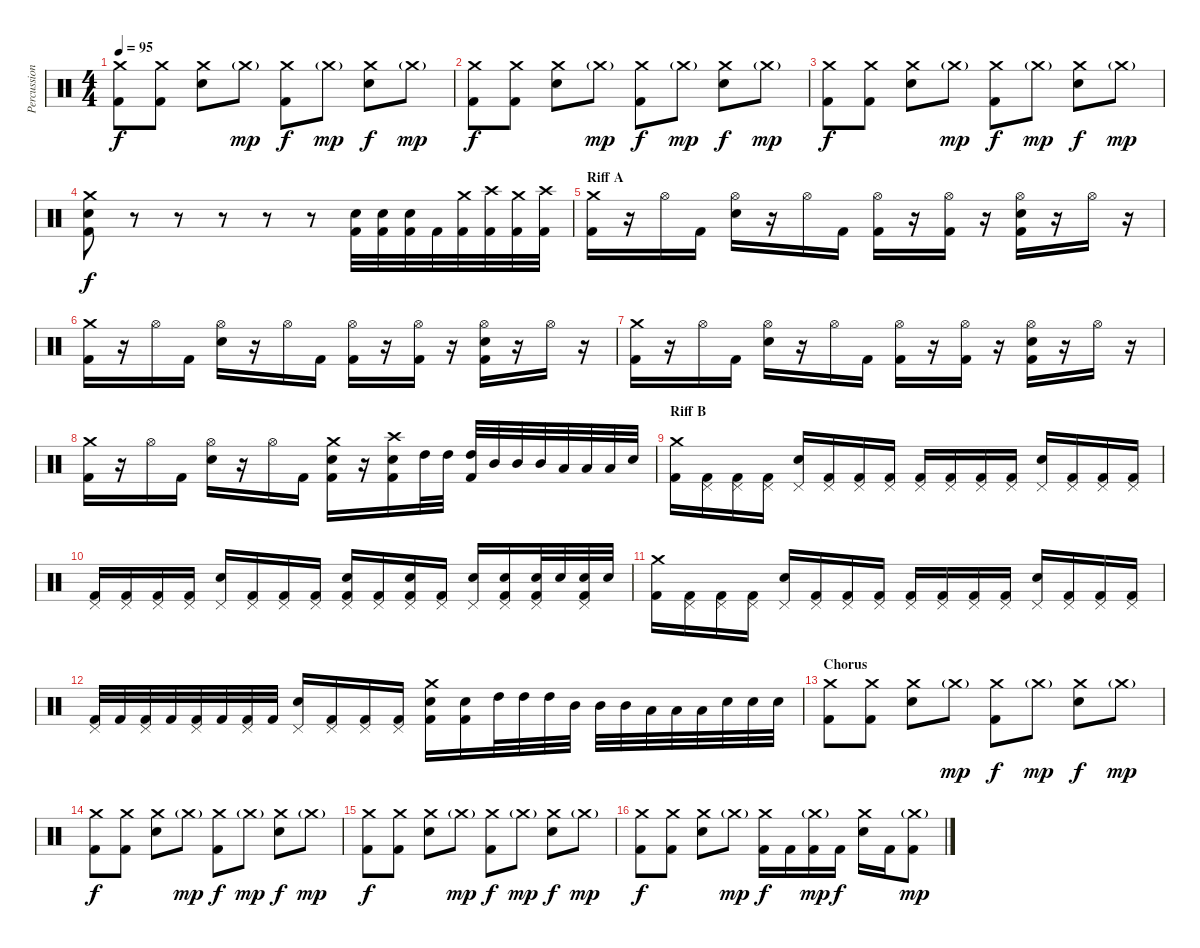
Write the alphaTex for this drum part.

\track ("Percussions" "Percussion") {instrument percussion}
\staff {score}
\articulation defaults
\ts (4 4)
\tempo 95
\clef neutral
\ks c
("Crash medium (hit)" "Kick (hit) 2").8{dy f} ("Crash medium (hit)" "Kick (hit) 2").8 ("Crash medium (hit)" "Electric Snare (hit)").8 "Crash medium (hit)"{g}.8{dy mp} ("Crash medium (hit)" "Kick (hit) 2").8{dy f} "Crash medium (hit)"{g}.8{dy mp} ("Crash medium (hit)" "Electric Snare (hit)").8{dy f} "Crash medium (hit)"{g}.8{dy mp} |
("Crash medium (hit)" "Kick (hit) 2").8{dy f} ("Crash medium (hit)" "Kick (hit) 2").8 ("Crash medium (hit)" "Electric Snare (hit)").8 "Crash medium (hit)"{g}.8{dy mp} ("Crash medium (hit)" "Kick (hit) 2").8{dy f} "Crash medium (hit)"{g}.8{dy mp} ("Crash medium (hit)" "Electric Snare (hit)").8{dy f} "Crash medium (hit)"{g}.8{dy mp} |
("Crash medium (hit)" "Kick (hit) 2").8{dy f} ("Crash medium (hit)" "Kick (hit) 2").8 ("Crash medium (hit)" "Electric Snare (hit)").8 "Crash medium (hit)"{g}.8{dy mp} ("Crash medium (hit)" "Kick (hit) 2").8{dy f} "Crash medium (hit)"{g}.8{dy mp} ("Crash medium (hit)" "Electric Snare (hit)").8{dy f} "Crash medium (hit)"{g}.8{dy mp} |
("Crash medium (hit)" "Electric Snare (hit)" "Kick (hit) 2").8{dy f} r.8 r.8 r.8 r.8 r.8 ("Electric Snare (hit)" "Kick (hit) 2").32 ("Electric Snare (hit)" "Kick (hit) 2").32 ("Electric Snare (hit)" "Kick (hit) 2").32 "Kick (hit) 2".32 ("Crash medium (hit)" "Kick (hit) 2").32 ("Crash high (hit)" "Kick (hit) 2").32 ("Crash medium (hit)" "Kick (hit) 2").32 ("Crash high (hit)" "Kick (hit) 2").32 |
\section ("" "Riff A")
("Crash medium (hit)" "Kick (hit) 2").16 r.16 "Hi-Hat (open)".16 "Kick (hit) 2".16 ("Hi-Hat (open)" "Electric Snare (hit)").16 r.16 "Hi-Hat (open)".16 "Kick (hit) 2".16 ("Hi-Hat (open)" "Kick (hit) 2").16 r.16 ("Hi-Hat (open)" "Kick (hit) 2").16 r.16 ("Hi-Hat (open)" "Electric Snare (hit)" "Kick (hit) 2").16 r.16 "Hi-Hat (open)".16 r.16 |
("Crash medium (hit)" "Kick (hit) 2").16 r.16 "Hi-Hat (open)".16 "Kick (hit) 2".16 ("Hi-Hat (open)" "Electric Snare (hit)").16 r.16 "Hi-Hat (open)".16 "Kick (hit) 2".16 ("Hi-Hat (open)" "Kick (hit) 2").16 r.16 ("Hi-Hat (open)" "Kick (hit) 2").16 r.16 ("Hi-Hat (open)" "Electric Snare (hit)" "Kick (hit) 2").16 r.16 "Hi-Hat (open)".16 r.16 |
("Crash medium (hit)" "Kick (hit) 2").16 r.16 "Hi-Hat (open)".16 "Kick (hit) 2".16 ("Hi-Hat (open)" "Electric Snare (hit)").16 r.16 "Hi-Hat (open)".16 "Kick (hit) 2".16 ("Hi-Hat (open)" "Kick (hit) 2").16 r.16 ("Hi-Hat (open)" "Kick (hit) 2").16 r.16 ("Hi-Hat (open)" "Electric Snare (hit)" "Kick (hit) 2").16 r.16 "Hi-Hat (open)".16 r.16 |
("Crash medium (hit)" "Kick (hit) 2").16 r.16 "Hi-Hat (open)".16 "Kick (hit) 2".16 ("Hi-Hat (open)" "Electric Snare (hit)").16 r.16 "Hi-Hat (open)".16 "Kick (hit) 2".16 ("Crash medium (hit)" "Electric Snare (hit)" "Kick (hit) 2").16 r.16 ("Crash high (hit)" "Electric Snare (hit)" "Kick (hit) 2").16 "High Tom (hit)".32 "High Tom (hit)".32 ("High Tom (hit)" "Kick (hit) 2").32 "Mid Tom (hit)".32 "Mid Tom (hit)".32 "Mid Tom (hit)".32 "Low Tom (hit)".32 "Low Tom (hit)".32 "Low Tom (hit)".32 "Electric Snare (hit)".32 |
\section ("" "Riff B")
("Crash medium (hit)" "Kick (hit) 2").16 ("Pedal Hi-Hat (hit)" "Kick (hit) 2").16 ("Pedal Hi-Hat (hit)" "Kick (hit) 2").16 ("Pedal Hi-Hat (hit)" "Kick (hit) 2").16 ("Pedal Hi-Hat (hit)" "Electric Snare (hit)").16 ("Pedal Hi-Hat (hit)" "Kick (hit) 2").16 ("Pedal Hi-Hat (hit)" "Kick (hit) 2").16 ("Pedal Hi-Hat (hit)" "Kick (hit) 2").16 ("Pedal Hi-Hat (hit)" "Kick (hit) 2").16 ("Pedal Hi-Hat (hit)" "Kick (hit) 2").16 ("Pedal Hi-Hat (hit)" "Kick (hit) 2").16 ("Pedal Hi-Hat (hit)" "Kick (hit) 2").16 ("Pedal Hi-Hat (hit)" "Electric Snare (hit)").16 ("Pedal Hi-Hat (hit)" "Kick (hit) 2").16 ("Pedal Hi-Hat (hit)" "Kick (hit) 2").16 ("Pedal Hi-Hat (hit)" "Kick (hit) 2").16 |
("Pedal Hi-Hat (hit)" "Kick (hit) 2").16 ("Pedal Hi-Hat (hit)" "Kick (hit) 2").16 ("Pedal Hi-Hat (hit)" "Kick (hit) 2").16 ("Pedal Hi-Hat (hit)" "Kick (hit) 2").16 ("Pedal Hi-Hat (hit)" "Electric Snare (hit)").16 ("Pedal Hi-Hat (hit)" "Kick (hit) 2").16 ("Pedal Hi-Hat (hit)" "Kick (hit) 2").16 ("Pedal Hi-Hat (hit)" "Kick (hit) 2").16 ("Pedal Hi-Hat (hit)" "Electric Snare (hit)" "Kick (hit) 2").16 ("Pedal Hi-Hat (hit)" "Kick (hit) 2").16 ("Pedal Hi-Hat (hit)" "Electric Snare (hit)" "Kick (hit) 2").16 ("Pedal Hi-Hat (hit)" "Kick (hit) 2").16 ("Pedal Hi-Hat (hit)" "Electric Snare (hit)").16 ("Pedal Hi-Hat (hit)" "Electric Snare (hit)" "Kick (hit) 2").16 ("Pedal Hi-Hat (hit)" "Electric Snare (hit)" "Kick (hit) 2").32 "Electric Snare (hit)".32 ("Pedal Hi-Hat (hit)" "Electric Snare (hit)" "Kick (hit) 2").32 "Electric Snare (hit)".32 |
("Crash medium (hit)" "Kick (hit) 2").16 ("Pedal Hi-Hat (hit)" "Kick (hit) 2").16 ("Pedal Hi-Hat (hit)" "Kick (hit) 2").16 ("Pedal Hi-Hat (hit)" "Kick (hit) 2").16 ("Pedal Hi-Hat (hit)" "Electric Snare (hit)").16 ("Pedal Hi-Hat (hit)" "Kick (hit) 2").16 ("Pedal Hi-Hat (hit)" "Kick (hit) 2").16 ("Pedal Hi-Hat (hit)" "Kick (hit) 2").16 ("Pedal Hi-Hat (hit)" "Kick (hit) 2").16 ("Pedal Hi-Hat (hit)" "Kick (hit) 2").16 ("Pedal Hi-Hat (hit)" "Kick (hit) 2").16 ("Pedal Hi-Hat (hit)" "Kick (hit) 2").16 ("Pedal Hi-Hat (hit)" "Electric Snare (hit)").16 ("Pedal Hi-Hat (hit)" "Kick (hit) 2").16 ("Pedal Hi-Hat (hit)" "Kick (hit) 2").16 ("Pedal Hi-Hat (hit)" "Kick (hit) 2").16 |
("Pedal Hi-Hat (hit)" "Kick (hit) 2").32 "Kick (hit) 2".32 ("Pedal Hi-Hat (hit)" "Kick (hit) 2").32 "Kick (hit) 2".32 ("Pedal Hi-Hat (hit)" "Kick (hit) 2").32 "Kick (hit) 2".32 ("Pedal Hi-Hat (hit)" "Kick (hit) 2").32 "Kick (hit) 2".32 ("Pedal Hi-Hat (hit)" "Electric Snare (hit)").16 ("Pedal Hi-Hat (hit)" "Kick (hit) 2").16 ("Pedal Hi-Hat (hit)" "Kick (hit) 2").16 ("Pedal Hi-Hat (hit)" "Kick (hit) 2").16 ("Crash medium (hit)" "Electric Snare (hit)" "Kick (hit) 2").16 ("Electric Snare (hit)" "Kick (hit) 2").16 "High Tom (hit)".32 "High Tom (hit)".32 "High Tom (hit)".32 "Mid Tom (hit)".32 "Mid Tom (hit)".32 "Mid Tom (hit)".32 "Low Tom (hit)".32 "Low Tom (hit)".32 "Low Tom (hit)".32 "Electric Snare (hit)".32 "Electric Snare (hit)".32 "Electric Snare (hit)".32 |
\section ("" "Chorus")
("Crash medium (hit)" "Kick (hit) 2").8 ("Crash medium (hit)" "Kick (hit) 2").8 ("Crash medium (hit)" "Electric Snare (hit)").8 "Crash medium (hit)"{g}.8{dy mp} ("Crash medium (hit)" "Kick (hit) 2").8{dy f} "Crash medium (hit)"{g}.8{dy mp} ("Crash medium (hit)" "Electric Snare (hit)").8{dy f} "Crash medium (hit)"{g}.8{dy mp} |
("Crash medium (hit)" "Kick (hit) 2").8{dy f} ("Crash medium (hit)" "Kick (hit) 2").8 ("Crash medium (hit)" "Electric Snare (hit)").8 "Crash medium (hit)"{g}.8{dy mp} ("Crash medium (hit)" "Kick (hit) 2").8{dy f} "Crash medium (hit)"{g}.8{dy mp} ("Crash medium (hit)" "Electric Snare (hit)").8{dy f} "Crash medium (hit)"{g}.8{dy mp} |
("Crash medium (hit)" "Kick (hit) 2").8{dy f} ("Crash medium (hit)" "Kick (hit) 2").8 ("Crash medium (hit)" "Electric Snare (hit)").8 "Crash medium (hit)"{g}.8{dy mp} ("Crash medium (hit)" "Kick (hit) 2").8{dy f} "Crash medium (hit)"{g}.8{dy mp} ("Crash medium (hit)" "Electric Snare (hit)").8{dy f} "Crash medium (hit)"{g}.8{dy mp} |
("Crash medium (hit)" "Kick (hit) 2").8{dy f} ("Crash medium (hit)" "Kick (hit) 2").8 ("Crash medium (hit)" "Electric Snare (hit)").8 "Crash medium (hit)"{g}.8{dy mp} ("Crash medium (hit)" "Kick (hit) 2").16{dy f} "Kick (hit) 2".16 ("Crash medium (hit)"{g} "Kick (hit) 2").16{dy mp} "Kick (hit) 2".16{dy f} ("Crash medium (hit)" "Electric Snare (hit)").16 "Kick (hit) 2".16 ("Crash medium (hit)"{g} "Kick (hit) 2").8{dy mp}
